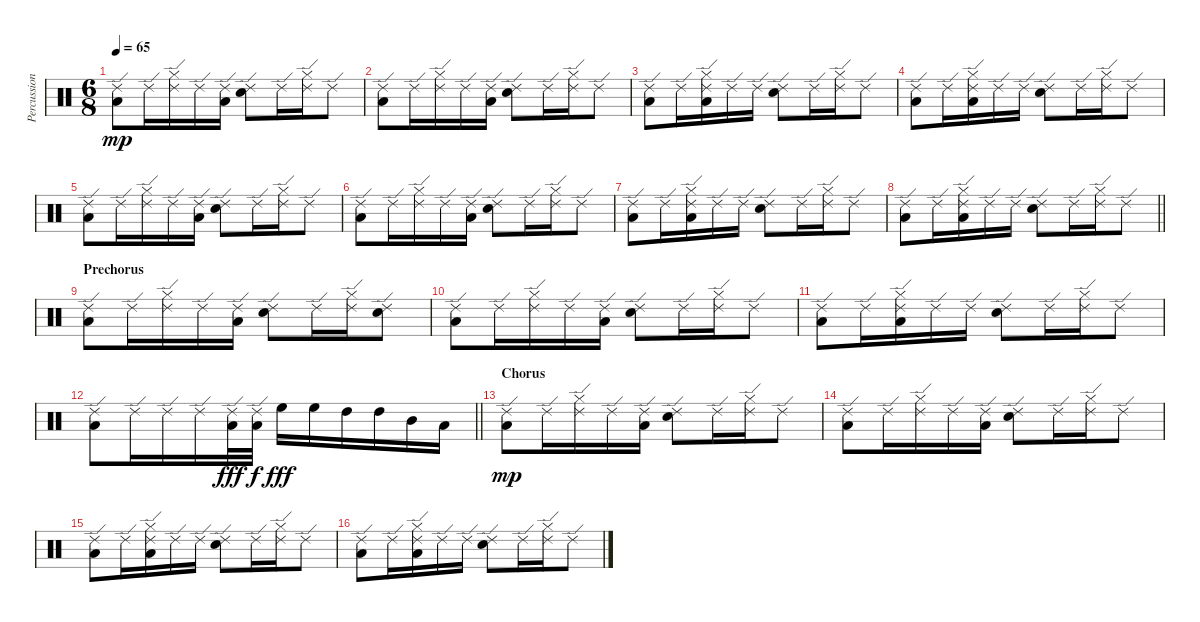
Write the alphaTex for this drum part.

\track ("Percussions" "Percussion") {instrument percussion}
\staff {score}
\articulation defaults
\ts (6 8)
\tempo 65
\clef neutral
\ks c
("Ride (edge) 2" "Low Tom (hit)").8{dy mp} "Ride (edge) 2".16 ("Ride (edge) 2" "Hi-Hat (closed)").16 "Ride (edge) 2".16 ("Ride (edge) 2" "Low Tom (hit)").16 ("Ride (edge) 2" "Electric Snare (hit)").8 "Ride (edge) 2".16 ("Ride (edge) 2" "Hi-Hat (closed)").16 "Ride (edge) 2".8 |
("Ride (edge) 2" "Low Tom (hit)").8 "Ride (edge) 2".16 ("Ride (edge) 2" "Hi-Hat (closed)").16 "Ride (edge) 2".16 ("Ride (edge) 2" "Low Tom (hit)").16 ("Ride (edge) 2" "Electric Snare (hit)").8 "Ride (edge) 2".16 ("Ride (edge) 2" "Hi-Hat (closed)").16 "Ride (edge) 2".8 |
("Ride (edge) 2" "Low Tom (hit)").8 "Ride (edge) 2".16 ("Ride (edge) 2" "Hi-Hat (closed)" "Low Tom (hit)").16 "Ride (edge) 2".16 "Ride (edge) 2".16 ("Ride (edge) 2" "Electric Snare (hit)").8 "Ride (edge) 2".16 ("Ride (edge) 2" "Hi-Hat (closed)").16 "Ride (edge) 2".8 |
("Ride (edge) 2" "Low Tom (hit)").8 "Ride (edge) 2".16 ("Ride (edge) 2" "Hi-Hat (closed)" "Low Tom (hit)").16 "Ride (edge) 2".16 "Ride (edge) 2".16 ("Ride (edge) 2" "Electric Snare (hit)").8 "Ride (edge) 2".16 ("Ride (edge) 2" "Hi-Hat (closed)").16 "Ride (edge) 2".8 |
("Ride (edge) 2" "Low Tom (hit)").8 "Ride (edge) 2".16 ("Ride (edge) 2" "Hi-Hat (closed)").16 "Ride (edge) 2".16 ("Ride (edge) 2" "Low Tom (hit)").16 ("Ride (edge) 2" "Electric Snare (hit)").8 "Ride (edge) 2".16 ("Ride (edge) 2" "Hi-Hat (closed)").16 "Ride (edge) 2".8 |
("Ride (edge) 2" "Low Tom (hit)").8 "Ride (edge) 2".16 ("Ride (edge) 2" "Hi-Hat (closed)").16 "Ride (edge) 2".16 ("Ride (edge) 2" "Low Tom (hit)").16 ("Ride (edge) 2" "Electric Snare (hit)").8 "Ride (edge) 2".16 ("Ride (edge) 2" "Hi-Hat (closed)").16 "Ride (edge) 2".8 |
("Ride (edge) 2" "Low Tom (hit)").8 "Ride (edge) 2".16 ("Ride (edge) 2" "Hi-Hat (closed)" "Low Tom (hit)").16 "Ride (edge) 2".16 "Ride (edge) 2".16 ("Ride (edge) 2" "Electric Snare (hit)").8 "Ride (edge) 2".16 ("Ride (edge) 2" "Hi-Hat (closed)").16 "Ride (edge) 2".8 |
\barLineRight lightlight
("Ride (edge) 2" "Low Tom (hit)").8 "Ride (edge) 2".16 ("Ride (edge) 2" "Hi-Hat (closed)" "Low Tom (hit)").16 "Ride (edge) 2".16 "Ride (edge) 2".16 ("Ride (edge) 2" "Electric Snare (hit)").8 "Ride (edge) 2".16 ("Ride (edge) 2" "Hi-Hat (closed)").16 "Ride (edge) 2".8 |
\section ("" "Prechorus")
("Ride (edge) 2" "Low Tom (hit)").8 "Ride (edge) 2".16 ("Ride (edge) 2" "Hi-Hat (closed)").16 "Ride (edge) 2".16 ("Ride (edge) 2" "Low Tom (hit)").16 ("Ride (edge) 2" "Electric Snare (hit)").8 "Ride (edge) 2".16 ("Ride (edge) 2" "Hi-Hat (closed)").16 ("Ride (edge) 2" "Electric Snare (hit)").8 |
("Ride (edge) 2" "Low Tom (hit)").8 "Ride (edge) 2".16 ("Ride (edge) 2" "Hi-Hat (closed)").16 "Ride (edge) 2".16 ("Ride (edge) 2" "Low Tom (hit)").16 ("Ride (edge) 2" "Electric Snare (hit)").8 "Ride (edge) 2".16 ("Ride (edge) 2" "Hi-Hat (closed)").16 "Ride (edge) 2".8 |
("Ride (edge) 2" "Low Tom (hit)").8 "Ride (edge) 2".16 ("Ride (edge) 2" "Hi-Hat (closed)" "Low Tom (hit)").16 "Ride (edge) 2".16 "Ride (edge) 2".16 ("Ride (edge) 2" "Electric Snare (hit)").8 "Ride (edge) 2".16 ("Ride (edge) 2" "Hi-Hat (closed)").16 "Ride (edge) 2".8 |
\barLineRight lightlight
("Ride (edge) 2" "Low Tom (hit)").8 "Ride (edge) 2".16 "Ride (edge) 2".16 "Ride (edge) 2".16 ("Ride (edge) 2" "Low Tom (hit)").32{dy fff} ("Ride (edge) 2" "Low Tom (hit)").32{dy f} "High Floor Tom (hit)".16{dy fff} "High Floor Tom (hit)".16 "High Tom (hit)".16 "High Tom (hit)".16 "Mid Tom (hit)".16 "Low Tom (hit)".16 |
\section ("" "Chorus")
("Ride (edge) 2" "Low Tom (hit)").8{dy mp} "Ride (edge) 2".16 ("Ride (edge) 2" "Hi-Hat (closed)").16 "Ride (edge) 2".16 ("Ride (edge) 2" "Low Tom (hit)").16 ("Ride (edge) 2" "Electric Snare (hit)").8 "Ride (edge) 2".16 ("Ride (edge) 2" "Hi-Hat (closed)").16 "Ride (edge) 2".8 |
("Ride (edge) 2" "Low Tom (hit)").8 "Ride (edge) 2".16 ("Ride (edge) 2" "Hi-Hat (closed)").16 "Ride (edge) 2".16 ("Ride (edge) 2" "Low Tom (hit)").16 ("Ride (edge) 2" "Electric Snare (hit)").8 "Ride (edge) 2".16 ("Ride (edge) 2" "Hi-Hat (closed)").16 "Ride (edge) 2".8 |
("Ride (edge) 2" "Low Tom (hit)").8 "Ride (edge) 2".16 ("Ride (edge) 2" "Hi-Hat (closed)" "Low Tom (hit)").16 "Ride (edge) 2".16 "Ride (edge) 2".16 ("Ride (edge) 2" "Electric Snare (hit)").8 "Ride (edge) 2".16 ("Ride (edge) 2" "Hi-Hat (closed)").16 "Ride (edge) 2".8 |
("Ride (edge) 2" "Low Tom (hit)").8 "Ride (edge) 2".16 ("Ride (edge) 2" "Hi-Hat (closed)" "Low Tom (hit)").16 "Ride (edge) 2".16 "Ride (edge) 2".16 ("Ride (edge) 2" "Electric Snare (hit)").8 "Ride (edge) 2".16 ("Ride (edge) 2" "Hi-Hat (closed)").16 "Ride (edge) 2".8
